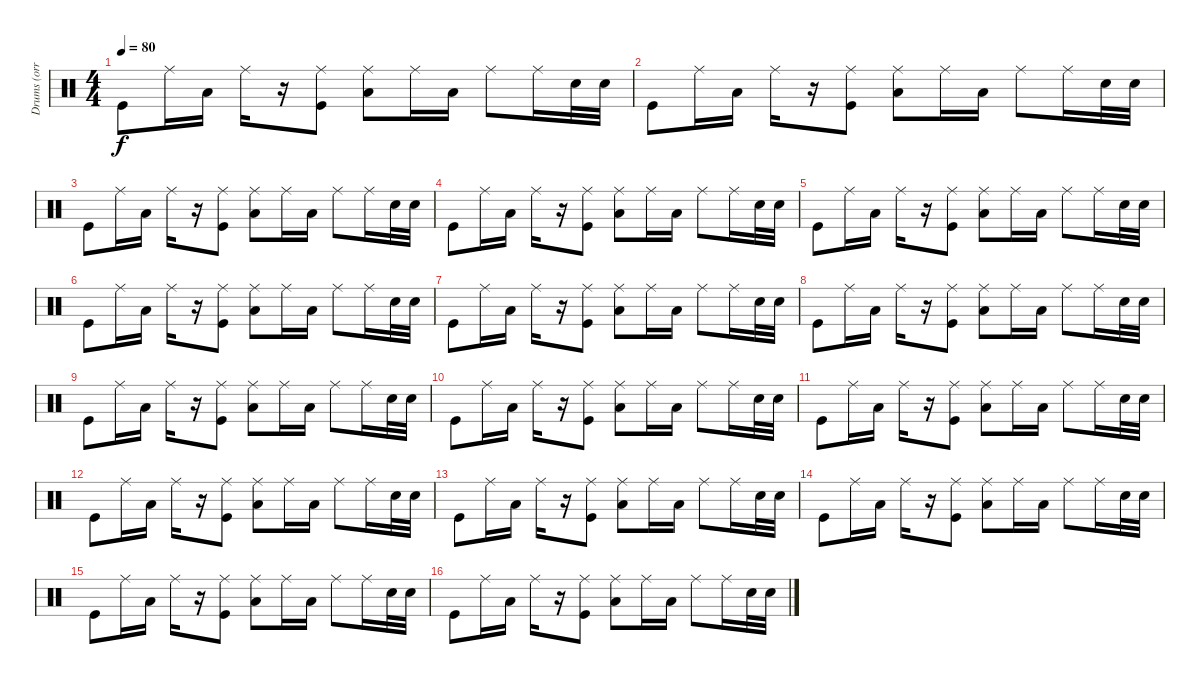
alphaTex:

\track ("Drums (orri páll dırason)" "Drums (orr") {instrument percussion}
\staff {score}
\articulation defaults
\ts (4 4)
\tempo 80
\clef neutral
\ks c "Kick (hit)".8{dy f} "Ride (middle)".16 "Low Tom (hit)".16 "Ride (middle)".16
r.16 ("Ride (middle)" "Kick (hit)").8 ("Ride (middle)" "Low Tom (hit)").8 "Ride (middle)".16 "Low Tom (hit)".16 "Ride (middle)".8 "Ride (middle)".16 "Electric Snare (hit)".32 "Electric Snare (hit)".32 |
"Kick (hit)".8 "Ride (middle)".16 "Low Tom (hit)".16 "Ride (middle)".16 r.16 ("Ride (middle)" "Kick (hit)").8 ("Ride (middle)" "Low Tom (hit)").8 "Ride (middle)".16 "Low Tom (hit)".16 "Ride (middle)".8 "Ride (middle)".16 "Electric Snare (hit)".32 "Electric Snare (hit)".32 |
"Kick (hit)".8 "Ride (middle)".16 "Low Tom (hit)".16 "Ride (middle)".16 r.16 ("Ride (middle)" "Kick (hit)").8 ("Ride (middle)" "Low Tom (hit)").8 "Ride (middle)".16 "Low Tom (hit)".16 "Ride (middle)".8 "Ride (middle)".16 "Electric Snare (hit)".32 "Electric Snare (hit)".32 |
"Kick (hit)".8 "Ride (middle)".16 "Low Tom (hit)".16 "Ride (middle)".16 r.16 ("Ride (middle)" "Kick (hit)").8 ("Ride (middle)" "Low Tom (hit)").8 "Ride (middle)".16 "Low Tom (hit)".16 "Ride (middle)".8 "Ride (middle)".16 "Electric Snare (hit)".32 "Electric Snare (hit)".32 |
"Kick (hit)".8 "Ride (middle)".16 "Low Tom (hit)".16 "Ride (middle)".16 r.16 ("Ride (middle)" "Kick (hit)").8 ("Ride (middle)" "Low Tom (hit)").8 "Ride (middle)".16 "Low Tom (hit)".16 "Ride (middle)".8 "Ride (middle)".16 "Electric Snare (hit)".32 "Electric Snare (hit)".32 |
"Kick (hit)".8 "Ride (middle)".16 "Low Tom (hit)".16 "Ride (middle)".16 r.16 ("Ride (middle)" "Kick (hit)").8 ("Ride (middle)" "Low Tom (hit)").8 "Ride (middle)".16 "Low Tom (hit)".16 "Ride (middle)".8 "Ride (middle)".16 "Electric Snare (hit)".32 "Electric Snare (hit)".32 |
"Kick (hit)".8 "Ride (middle)".16 "Low Tom (hit)".16 "Ride (middle)".16 r.16 ("Ride (middle)" "Kick (hit)").8 ("Ride (middle)" "Low Tom (hit)").8 "Ride (middle)".16 "Low Tom (hit)".16 "Ride (middle)".8 "Ride (middle)".16 "Electric Snare (hit)".32 "Electric Snare (hit)".32 |
"Kick (hit)".8 "Ride (middle)".16 "Low Tom (hit)".16 "Ride (middle)".16 r.16 ("Ride (middle)" "Kick (hit)").8 ("Ride (middle)" "Low Tom (hit)").8 "Ride (middle)".16 "Low Tom (hit)".16 "Ride (middle)".8 "Ride (middle)".16 "Electric Snare (hit)".32 "Electric Snare (hit)".32 |
"Kick (hit)".8 "Ride (middle)".16 "Low Tom (hit)".16 "Ride (middle)".16 r.16 ("Ride (middle)" "Kick (hit)").8 ("Ride (middle)" "Low Tom (hit)").8 "Ride (middle)".16 "Low Tom (hit)".16 "Ride (middle)".8 "Ride (middle)".16 "Electric Snare (hit)".32 "Electric Snare (hit)".32 |
"Kick (hit)".8 "Ride (middle)".16 "Low Tom (hit)".16 "Ride (middle)".16 r.16 ("Ride (middle)" "Kick (hit)").8 ("Ride (middle)" "Low Tom (hit)").8 "Ride (middle)".16 "Low Tom (hit)".16 "Ride (middle)".8 "Ride (middle)".16 "Electric Snare (hit)".32 "Electric Snare (hit)".32 |
"Kick (hit)".8 "Ride (middle)".16 "Low Tom (hit)".16 "Ride (middle)".16 r.16 ("Ride (middle)" "Kick (hit)").8 ("Ride (middle)" "Low Tom (hit)").8 "Ride (middle)".16 "Low Tom (hit)".16 "Ride (middle)".8 "Ride (middle)".16 "Electric Snare (hit)".32 "Electric Snare (hit)".32 |
"Kick (hit)".8 "Ride (middle)".16 "Low Tom (hit)".16 "Ride (middle)".16 r.16 ("Ride (middle)" "Kick (hit)").8 ("Ride (middle)" "Low Tom (hit)").8 "Ride (middle)".16 "Low Tom (hit)".16 "Ride (middle)".8 "Ride (middle)".16 "Electric Snare (hit)".32 "Electric Snare (hit)".32 |
"Kick (hit)".8 "Ride (middle)".16 "Low Tom (hit)".16 "Ride (middle)".16 r.16 ("Ride (middle)" "Kick (hit)").8 ("Ride (middle)" "Low Tom (hit)").8 "Ride (middle)".16 "Low Tom (hit)".16 "Ride (middle)".8 "Ride (middle)".16 "Electric Snare (hit)".32 "Electric Snare (hit)".32 |
"Kick (hit)".8 "Ride (middle)".16 "Low Tom (hit)".16 "Ride (middle)".16 r.16 ("Ride (middle)" "Kick (hit)").8 ("Ride (middle)" "Low Tom (hit)").8 "Ride (middle)".16 "Low Tom (hit)".16 "Ride (middle)".8 "Ride (middle)".16 "Electric Snare (hit)".32 "Electric Snare (hit)".32 |
"Kick (hit)".8 "Ride (middle)".16 "Low Tom (hit)".16 "Ride (middle)".16 r.16 ("Ride (middle)" "Kick (hit)").8 ("Ride (middle)" "Low Tom (hit)").8 "Ride (middle)".16 "Low Tom (hit)".16 "Ride (middle)".8 "Ride (middle)".16 "Electric Snare (hit)".32 "Electric Snare (hit)".32 |
"Kick (hit)".8 "Ride (middle)".16 "Low Tom (hit)".16 "Ride (middle)".16 r.16 ("Ride (middle)" "Kick (hit)").8 ("Ride (middle)" "Low Tom (hit)").8 "Ride (middle)".16 "Low Tom (hit)".16 "Ride (middle)".8 "Ride (middle)".16 "Electric Snare (hit)".32 "Electric Snare (hit)".32
